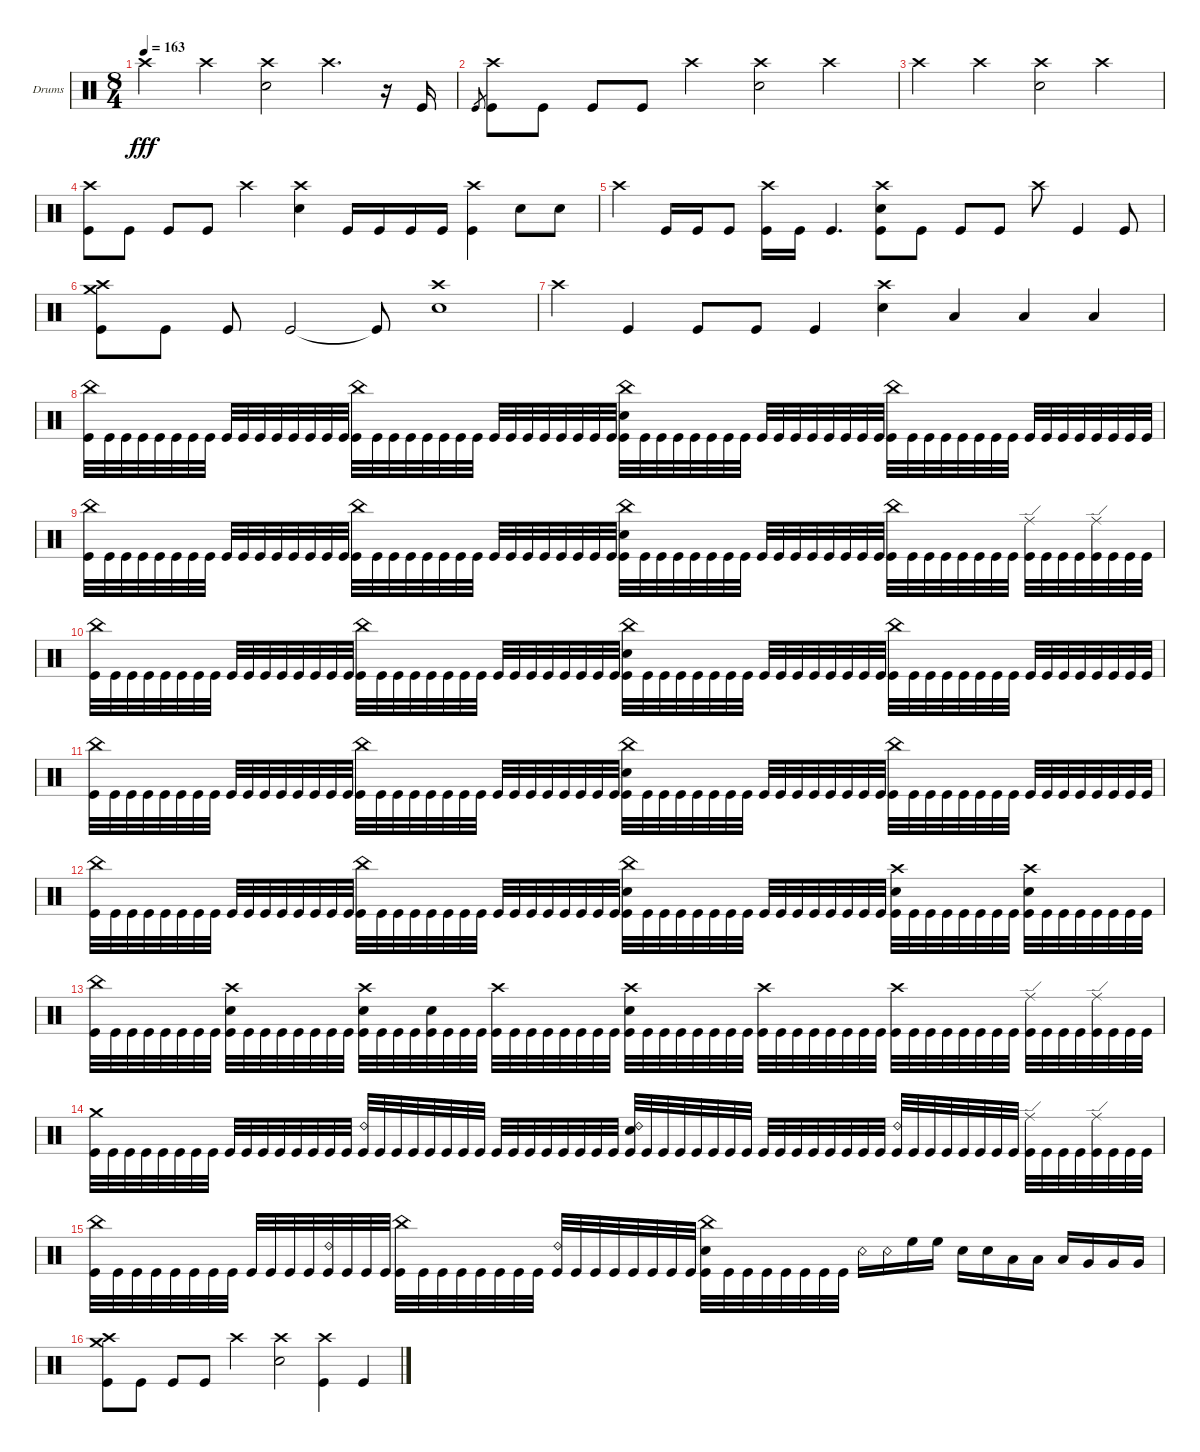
\defaultSystemsLayout 4
\bracketExtendMode groupsimilarinstruments
\firstSystemTrackNameOrientation horizontal
\otherSystemsTrackNameOrientation horizontal
\track ("Drumkit" "Drums") {instrument percussion}
\staff {score}
\articulation defaults
\ts (8 4)
\tempo 163
\clef neutral
\ks c "Crash high (hit)".2{dy fff} "Crash high (hit)".2
("Crash high (hit)" "Snare (hit) 2").2 "Crash high (hit)".4{d} r.16 "Kick (hit)".16 |
"Kick (hit)".8{gr} ("Kick (hit)" "Crash high (hit)").8 "Kick (hit)".8 "Kick (hit)".8 "Kick (hit)".8 "Crash high (hit)".2 ("Crash high (hit)" "Snare (hit) 2").2 "Crash high (hit)".2 |
"Crash high (hit)".2 "Crash high (hit)".2 ("Crash high (hit)" "Snare (hit) 2").2 "Crash high (hit)".2 |
("Kick (hit)" "Crash high (hit)").8 "Kick (hit)".8 "Kick (hit)".8 "Kick (hit)".8 "Crash high (hit)".2 ("Crash high (hit)" "Snare (hit) 2").4 "Kick (hit)".16 "Kick (hit)".16 "Kick (hit)".16 "Kick (hit)".16 ("Kick (hit)" "Crash high (hit)").4 "Snare (hit) 2".8 "Snare (hit) 2".8 |
"Crash high (hit)".4 "Kick (hit)".16 "Kick (hit)".16 "Kick (hit)".8 ("Kick (hit)" "Crash high (hit)").16 "Kick (hit)".16 "Kick (hit)".4{d} ("Kick (hit)" "Snare (hit) 2" "Crash high (hit)").8 "Kick (hit)".8 "Kick (hit)".8 "Kick (hit)".8 "Crash high (hit)".8 "Kick (hit)".4 "Kick (hit)".8 |
("Kick (hit)" "Crash medium (hit)" "Crash high (hit)").8 "Kick (hit)".8 "Kick (hit)".8 "Kick (hit)".2 "Kick (hit)"{t}.8 ("Snare (hit) 2" "Crash high (hit)").1 |
"Crash high (hit)".4 "Kick (hit)".4 "Kick (hit)".8 "Kick (hit)".8 "Kick (hit)".4 ("Snare (hit) 2" "Crash high (hit)").4 "Low Tom (hit)".4 "Low Tom (hit)".4 "Low Tom (hit)".4 |
("Kick (hit)" "China (hit)").32 "Kick (hit)".32 "Kick (hit)".32 "Kick (hit)".32 "Kick (hit)".32 "Kick (hit)".32 "Kick (hit)".32 "Kick (hit)".32 "Kick (hit)".32 "Kick (hit)".32 "Kick (hit)".32 "Kick (hit)".32 "Kick (hit)".32 "Kick (hit)".32 "Kick (hit)".32 "Kick (hit)".32 ("Kick (hit)" "China (hit)").32 "Kick (hit)".32 "Kick (hit)".32 "Kick (hit)".32 "Kick (hit)".32 "Kick (hit)".32 "Kick (hit)".32 "Kick (hit)".32 "Kick (hit)".32 "Kick (hit)".32 "Kick (hit)".32 "Kick (hit)".32 "Kick (hit)".32 "Kick (hit)".32 "Kick (hit)".32 "Kick (hit)".32 ("Kick (hit)" "China (hit)" "Snare (hit) 2").32 "Kick (hit)".32 "Kick (hit)".32 "Kick (hit)".32 "Kick (hit)".32 "Kick (hit)".32 "Kick (hit)".32 "Kick (hit)".32 "Kick (hit)".32 "Kick (hit)".32 "Kick (hit)".32 "Kick (hit)".32 "Kick (hit)".32 "Kick (hit)".32 "Kick (hit)".32 "Kick (hit)".32 ("Kick (hit)" "China (hit)").32 "Kick (hit)".32 "Kick (hit)".32 "Kick (hit)".32 "Kick (hit)".32 "Kick (hit)".32 "Kick (hit)".32 "Kick (hit)".32 "Kick (hit)".32 "Kick (hit)".32 "Kick (hit)".32 "Kick (hit)".32 "Kick (hit)".32 "Kick (hit)".32 "Kick (hit)".32 "Kick (hit)".32 |
("Kick (hit)" "China (hit)").32 "Kick (hit)".32 "Kick (hit)".32 "Kick (hit)".32 "Kick (hit)".32 "Kick (hit)".32 "Kick (hit)".32 "Kick (hit)".32 "Kick (hit)".32 "Kick (hit)".32 "Kick (hit)".32 "Kick (hit)".32 "Kick (hit)".32 "Kick (hit)".32 "Kick (hit)".32 "Kick (hit)".32 ("Kick (hit)" "China (hit)").32 "Kick (hit)".32 "Kick (hit)".32 "Kick (hit)".32 "Kick (hit)".32 "Kick (hit)".32 "Kick (hit)".32 "Kick (hit)".32 "Kick (hit)".32 "Kick (hit)".32 "Kick (hit)".32 "Kick (hit)".32 "Kick (hit)".32 "Kick (hit)".32 "Kick (hit)".32 "Kick (hit)".32 ("Kick (hit)" "Snare (hit) 2" "China (hit)").32 "Kick (hit)".32 "Kick (hit)".32 "Kick (hit)".32 "Kick (hit)".32 "Kick (hit)".32 "Kick (hit)".32 "Kick (hit)".32 "Kick (hit)".32 "Kick (hit)".32 "Kick (hit)".32 "Kick (hit)".32 "Kick (hit)".32 "Kick (hit)".32 "Kick (hit)".32 "Kick (hit)".32 ("Kick (hit)" "China (hit)").32 "Kick (hit)".32 "Kick (hit)".32 "Kick (hit)".32 "Kick (hit)".32 "Kick (hit)".32 "Kick (hit)".32 "Kick (hit)".32 ("Kick (hit)" "Ride (edge)").32 "Kick (hit)".32 "Kick (hit)".32 "Kick (hit)".32 ("Kick (hit)" "Ride (edge)").32 "Kick (hit)".32 "Kick (hit)".32 "Kick (hit)".32 |
("Kick (hit)" "China (hit)").32 "Kick (hit)".32 "Kick (hit)".32 "Kick (hit)".32 "Kick (hit)".32 "Kick (hit)".32 "Kick (hit)".32 "Kick (hit)".32 "Kick (hit)".32 "Kick (hit)".32 "Kick (hit)".32 "Kick (hit)".32 "Kick (hit)".32 "Kick (hit)".32 "Kick (hit)".32 "Kick (hit)".32 ("Kick (hit)" "China (hit)").32 "Kick (hit)".32 "Kick (hit)".32 "Kick (hit)".32 "Kick (hit)".32 "Kick (hit)".32 "Kick (hit)".32 "Kick (hit)".32 "Kick (hit)".32 "Kick (hit)".32 "Kick (hit)".32 "Kick (hit)".32 "Kick (hit)".32 "Kick (hit)".32 "Kick (hit)".32 "Kick (hit)".32 ("Kick (hit)" "Snare (hit) 2" "China (hit)").32 "Kick (hit)".32 "Kick (hit)".32 "Kick (hit)".32 "Kick (hit)".32 "Kick (hit)".32 "Kick (hit)".32 "Kick (hit)".32 "Kick (hit)".32 "Kick (hit)".32 "Kick (hit)".32 "Kick (hit)".32 "Kick (hit)".32 "Kick (hit)".32 "Kick (hit)".32 "Kick (hit)".32 ("Kick (hit)" "China (hit)").32 "Kick (hit)".32 "Kick (hit)".32 "Kick (hit)".32 "Kick (hit)".32 "Kick (hit)".32 "Kick (hit)".32 "Kick (hit)".32 "Kick (hit)".32 "Kick (hit)".32 "Kick (hit)".32 "Kick (hit)".32 "Kick (hit)".32 "Kick (hit)".32 "Kick (hit)".32 "Kick (hit)".32 |
("Kick (hit)" "China (hit)").32 "Kick (hit)".32 "Kick (hit)".32 "Kick (hit)".32 "Kick (hit)".32 "Kick (hit)".32 "Kick (hit)".32 "Kick (hit)".32 "Kick (hit)".32 "Kick (hit)".32 "Kick (hit)".32 "Kick (hit)".32 "Kick (hit)".32 "Kick (hit)".32 "Kick (hit)".32 "Kick (hit)".32 ("Kick (hit)" "China (hit)").32 "Kick (hit)".32 "Kick (hit)".32 "Kick (hit)".32 "Kick (hit)".32 "Kick (hit)".32 "Kick (hit)".32 "Kick (hit)".32 "Kick (hit)".32 "Kick (hit)".32 "Kick (hit)".32 "Kick (hit)".32 "Kick (hit)".32 "Kick (hit)".32 "Kick (hit)".32 "Kick (hit)".32 ("Kick (hit)" "Snare (hit) 2" "China (hit)").32 "Kick (hit)".32 "Kick (hit)".32 "Kick (hit)".32 "Kick (hit)".32 "Kick (hit)".32 "Kick (hit)".32 "Kick (hit)".32 "Kick (hit)".32 "Kick (hit)".32 "Kick (hit)".32 "Kick (hit)".32 "Kick (hit)".32 "Kick (hit)".32 "Kick (hit)".32 "Kick (hit)".32 ("Kick (hit)" "China (hit)").32 "Kick (hit)".32 "Kick (hit)".32 "Kick (hit)".32 "Kick (hit)".32 "Kick (hit)".32 "Kick (hit)".32 "Kick (hit)".32 "Kick (hit)".32 "Kick (hit)".32 "Kick (hit)".32 "Kick (hit)".32 "Kick (hit)".32 "Kick (hit)".32 "Kick (hit)".32 "Kick (hit)".32 |
("Kick (hit)" "China (hit)").32 "Kick (hit)".32 "Kick (hit)".32 "Kick (hit)".32 "Kick (hit)".32 "Kick (hit)".32 "Kick (hit)".32 "Kick (hit)".32 "Kick (hit)".32 "Kick (hit)".32 "Kick (hit)".32 "Kick (hit)".32 "Kick (hit)".32 "Kick (hit)".32 "Kick (hit)".32 "Kick (hit)".32 ("Kick (hit)" "China (hit)").32 "Kick (hit)".32 "Kick (hit)".32 "Kick (hit)".32 "Kick (hit)".32 "Kick (hit)".32 "Kick (hit)".32 "Kick (hit)".32 "Kick (hit)".32 "Kick (hit)".32 "Kick (hit)".32 "Kick (hit)".32 "Kick (hit)".32 "Kick (hit)".32 "Kick (hit)".32 "Kick (hit)".32 ("Kick (hit)" "Snare (hit) 2" "China (hit)").32 "Kick (hit)".32 "Kick (hit)".32 "Kick (hit)".32 "Kick (hit)".32 "Kick (hit)".32 "Kick (hit)".32 "Kick (hit)".32 "Kick (hit)".32 "Kick (hit)".32 "Kick (hit)".32 "Kick (hit)".32 "Kick (hit)".32 "Kick (hit)".32 "Kick (hit)".32 "Kick (hit)".32 ("Kick (hit)" "Snare (hit) 2" "Crash high (hit)").32 "Kick (hit)".32 "Kick (hit)".32 "Kick (hit)".32 "Kick (hit)".32 "Kick (hit)".32 "Kick (hit)".32 "Kick (hit)".32 ("Kick (hit)" "Snare (hit) 2" "Crash high (hit)").32 "Kick (hit)".32 "Kick (hit)".32 "Kick (hit)".32 "Kick (hit)".32 "Kick (hit)".32 "Kick (hit)".32 "Kick (hit)".32 |
("Kick (hit)" "China (hit)").32 "Kick (hit)".32 "Kick (hit)".32 "Kick (hit)".32 "Kick (hit)".32 "Kick (hit)".32 "Kick (hit)".32 "Kick (hit)".32 ("Kick (hit)" "Crash high (hit)" "Snare (hit) 2").32 "Kick (hit)".32 "Kick (hit)".32 "Kick (hit)".32 "Kick (hit)".32 "Kick (hit)".32 "Kick (hit)".32 "Kick (hit)".32 ("Kick (hit)" "Snare (hit) 2" "Crash high (hit)").32 "Kick (hit)".32 "Kick (hit)".32 "Kick (hit)".32 ("Kick (hit)" "Snare (hit) 2").32 "Kick (hit)".32 "Kick (hit)".32 "Kick (hit)".32 ("Kick (hit)" "Crash high (hit)").32 "Kick (hit)".32 "Kick (hit)".32 "Kick (hit)".32 "Kick (hit)".32 "Kick (hit)".32 "Kick (hit)".32 "Kick (hit)".32 ("Kick (hit)" "Snare (hit) 2" "Crash high (hit)").32 "Kick (hit)".32 "Kick (hit)".32 "Kick (hit)".32 "Kick (hit)".32 "Kick (hit)".32 "Kick (hit)".32 "Kick (hit)".32 ("Kick (hit)" "Crash high (hit)").32 "Kick (hit)".32 "Kick (hit)".32 "Kick (hit)".32 "Kick (hit)".32 "Kick (hit)".32 "Kick (hit)".32 "Kick (hit)".32 ("Kick (hit)" "Crash high (hit)").32 "Kick (hit)".32 "Kick (hit)".32 "Kick (hit)".32 "Kick (hit)".32 "Kick (hit)".32 "Kick (hit)".32 "Kick (hit)".32 ("Kick (hit)" "Ride (edge)").32 "Kick (hit)".32 "Kick (hit)".32 "Kick (hit)".32 ("Kick (hit)" "Ride (edge)").32 "Kick (hit)".32 "Kick (hit)".32 "Kick (hit)".32 |
("Kick (hit)" "Crash medium (hit)").32 "Kick (hit)".32 "Kick (hit)".32 "Kick (hit)".32 "Kick (hit)".32 "Kick (hit)".32 "Kick (hit)".32 "Kick (hit)".32 "Kick (hit)".32 "Kick (hit)".32 "Kick (hit)".32 "Kick (hit)".32 "Kick (hit)".32 "Kick (hit)".32 "Kick (hit)".32 "Kick (hit)".32 ("Kick (hit)" "Ride (bell) 2").32 "Kick (hit)".32 "Kick (hit)".32 "Kick (hit)".32 "Kick (hit)".32 "Kick (hit)".32 "Kick (hit)".32 "Kick (hit)".32 "Kick (hit)".32 "Kick (hit)".32 "Kick (hit)".32 "Kick (hit)".32 "Kick (hit)".32 "Kick (hit)".32 "Kick (hit)".32 "Kick (hit)".32 ("Kick (hit)" "Snare (hit) 2" "Ride (bell) 2").32 "Kick (hit)".32 "Kick (hit)".32 "Kick (hit)".32 "Kick (hit)".32 "Kick (hit)".32 "Kick (hit)".32 "Kick (hit)".32 "Kick (hit)".32 "Kick (hit)".32 "Kick (hit)".32 "Kick (hit)".32 "Kick (hit)".32 "Kick (hit)".32 "Kick (hit)".32 "Kick (hit)".32 ("Kick (hit)" "Ride (bell) 2").32 "Kick (hit)".32 "Kick (hit)".32 "Kick (hit)".32 "Kick (hit)".32 "Kick (hit)".32 "Kick (hit)".32 "Kick (hit)".32 ("Kick (hit)" "Ride (edge)").32 "Kick (hit)".32 "Kick (hit)".32 "Kick (hit)".32 ("Kick (hit)" "Ride (edge)").32 "Kick (hit)".32 "Kick (hit)".32 "Kick (hit)".32 |
("Kick (hit)" "China (hit)").32 "Kick (hit)".32 "Kick (hit)".32 "Kick (hit)".32 "Kick (hit)".32 "Kick (hit)".32 "Kick (hit)".32 "Kick (hit)".32 "Kick (hit)".32 "Kick (hit)".32 "Kick (hit)".32 "Kick (hit)".32 ("Kick (hit)" "Ride (bell) 2").32 "Kick (hit)".32 "Kick (hit)".32 "Kick (hit)".32 ("Kick (hit)" "China (hit)").32 "Kick (hit)".32 "Kick (hit)".32 "Kick (hit)".32 "Kick (hit)".32 "Kick (hit)".32 "Kick (hit)".32 "Kick (hit)".32 ("Kick (hit)" "Ride (bell) 2").32 "Kick (hit)".32 "Kick (hit)".32 "Kick (hit)".32 "Kick (hit)".32 "Kick (hit)".32 "Kick (hit)".32 "Kick (hit)".32 ("Kick (hit)" "Snare (hit) 2" "China (hit)").32 "Kick (hit)".32 "Kick (hit)".32 "Kick (hit)".32 "Kick (hit)".32 "Kick (hit)".32 "Kick (hit)".32 "Kick (hit)".32 "Snare (rim shot)".16 "Snare (rim shot)".16 "High Floor Tom (hit)".16 "High Floor Tom (hit)".16 "Snare (hit) 2".16 "Snare (hit) 2".16 "Low Tom (hit)".16 "Low Tom (hit)".16 "Low Tom (hit)".16 "Very Low Tom (hit)".16 "Very Low Tom (hit)".16 "Very Low Tom (hit)".16 |
("Crash high (hit)" "Crash medium (hit)" "Kick (hit)").8 "Kick (hit)".8 "Kick (hit)".8 "Kick (hit)".8 "Crash high (hit)".2 ("Crash high (hit)" "Snare (hit) 2").2 ("Kick (hit)" "Crash high (hit)").4 "Kick (hit)".4
